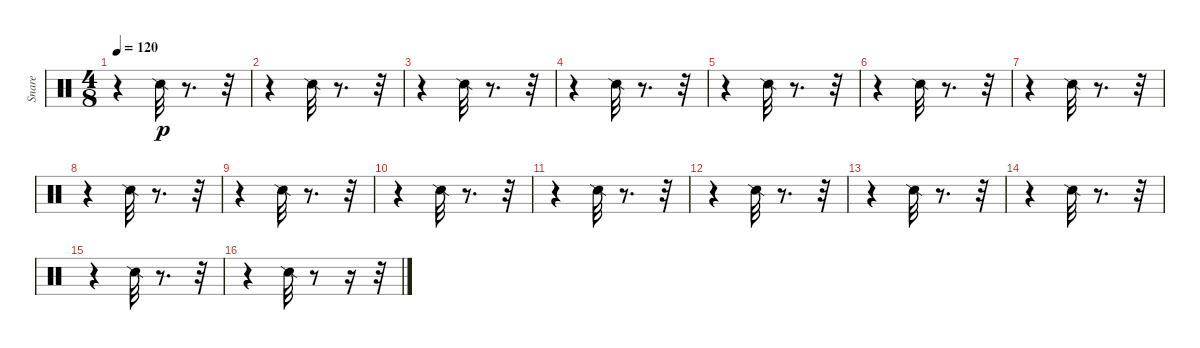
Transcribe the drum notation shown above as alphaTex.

\track ("Snare" "Snare") {instrument percussion}
\staff {score}
\articulation defaults
\ts (4 8)
\tempo 120
\clef neutral
\ks c
r.4{dy p} "Snare (side stick) 2".32 r.8{d} r.32 |
r.4 "Snare (side stick) 2".32 r.8{d} r.32 |
r.4 "Snare (side stick) 2".32 r.8{d} r.32 |
r.4 "Snare (side stick) 2".32 r.8{d} r.32 |
r.4 "Snare (side stick) 2".32 r.8{d} r.32 |
r.4 "Snare (side stick) 2".32 r.8{d} r.32 |
r.4 "Snare (side stick) 2".32 r.8{d} r.32 |
r.4 "Snare (side stick) 2".32 r.8{d} r.32 |
r.4 "Snare (side stick) 2".32 r.8{d} r.32 |
r.4 "Snare (side stick) 2".32 r.8{d} r.32 |
r.4 "Snare (side stick) 2".32 r.8{d} r.32 |
r.4 "Snare (side stick) 2".32 r.8{d} r.32 |
r.4 "Snare (side stick) 2".32 r.8{d} r.32 |
r.4 "Snare (side stick) 2".32 r.8{d} r.32 |
r.4 "Snare (side stick) 2".32 r.8{d} r.32 |
r.4 "Snare (side stick) 2".32 r.8 r.16 r.32
